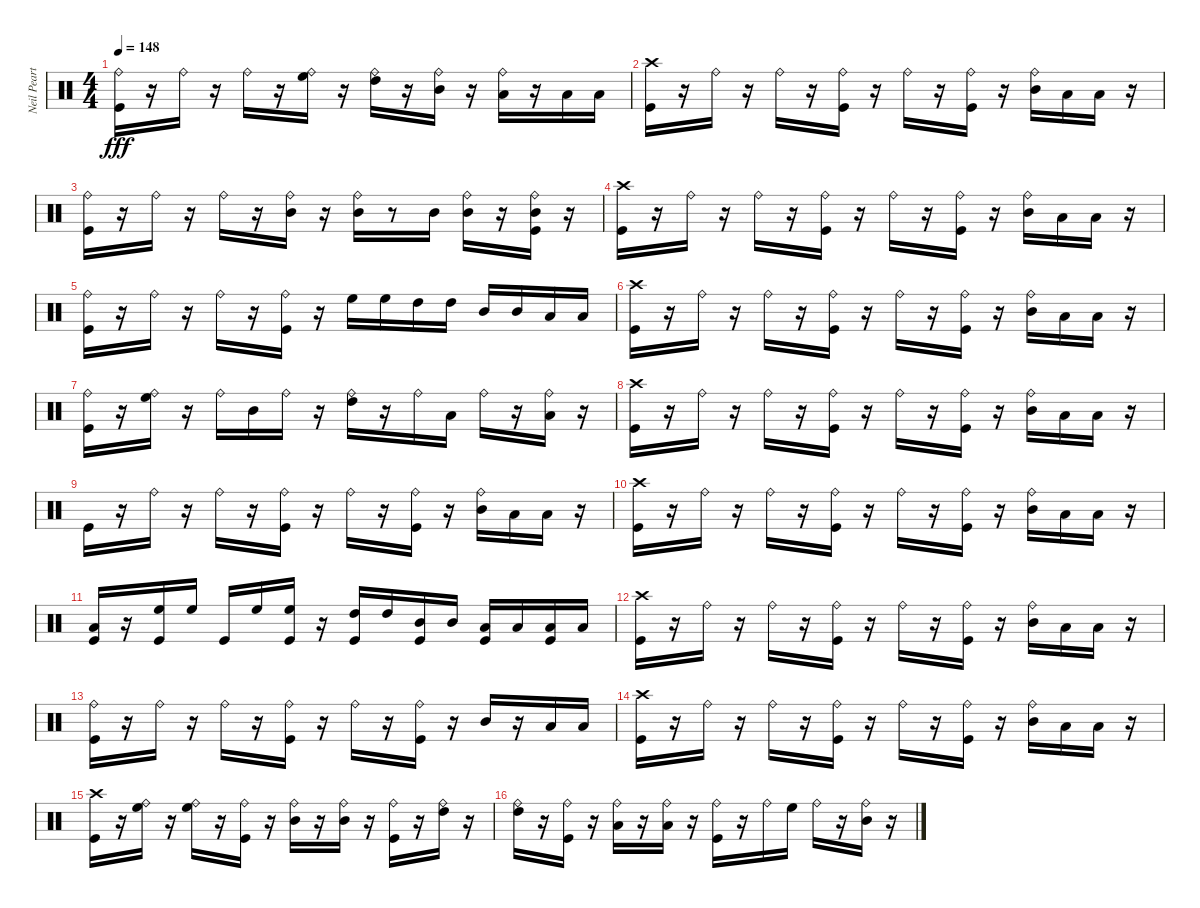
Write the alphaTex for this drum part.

\track ("Neil Peart" "Neil Peart") {instrument percussion}
\staff {score}
\articulation defaults
\ts (4 4)
\tempo 148
\clef neutral
\ks c
("Ride (bell)" "Kick (hit)").16{dy fff} r.16 "Ride (bell)".16 r.16 "Ride (bell)".16 r.16 ("Ride (bell)" "High Floor Tom (hit)").16 r.16 ("Ride (bell)" "High Tom (hit)").16 r.16 ("Ride (bell)" "Mid Tom (hit)").16 r.16 ("Ride (bell)" "Low Tom (hit)").16 r.16 "Low Floor Tom (hit)".16 "Low Floor Tom (hit)".16 |
("Kick (hit)" "Crash high (hit)").16 r.16 "Ride (bell)".16 r.16 "Ride (bell)".16 r.16 ("Kick (hit)" "Ride (bell)").16 r.16 "Ride (bell)".16 r.16 ("Kick (hit)" "Ride (bell)").16 r.16 ("Mid Tom (hit)" "Ride (bell)").16 "Low Floor Tom (hit)".16 "Low Floor Tom (hit)".16 r.16 |
("Ride (bell)" "Kick (hit)").16 r.16 "Ride (bell)".16 r.16 "Ride (bell)".16 r.16 ("Ride (bell)" "Mid Tom (hit)").16 r.16 ("Ride (bell)" "Mid Tom (hit)").16 r.8 "Mid Tom (hit)".16 ("Ride (bell)" "Mid Tom (hit)").16 r.16 ("Ride (bell)" "Mid Tom (hit)" "Kick (hit)").16 r.16 |
("Crash high (hit)" "Kick (hit)").16 r.16 "Ride (bell)".16 r.16 "Ride (bell)".16 r.16 ("Kick (hit)" "Ride (bell)").16 r.16 "Ride (bell)".16 r.16 ("Kick (hit)" "Ride (bell)").16 r.16 ("Mid Tom (hit)" "Ride (bell)").16 "Low Floor Tom (hit)".16 "Low Floor Tom (hit)".16 r.16 |
("Ride (bell)" "Kick (hit)").16 r.16 "Ride (bell)".16 r.16 "Ride (bell)".16 r.16 ("Ride (bell)" "Kick (hit)").16 r.16 "High Floor Tom (hit)".16 "High Floor Tom (hit)".16 "High Tom (hit)".16 "High Tom (hit)".16 "Mid Tom (hit)".16 "Mid Tom (hit)".16 "Low Tom (hit)".16 "Low Tom (hit)".16{volume 16} |
("Crash high (hit)" "Kick (hit)").16 r.16 "Ride (bell)".16{volume 15} r.16 "Ride (bell)".16 r.16 ("Kick (hit)" "Ride (bell)").16{volume 15} r.16 "Ride (bell)".16{volume 15} r.16 ("Kick (hit)" "Ride (bell)").16 r.16 ("Mid Tom (hit)" "Ride (bell)").16{volume 15} "Low Floor Tom (hit)".16{volume 14} "Low Floor Tom (hit)".16 r.16 |
("Ride (bell)" "Kick (hit)").16{volume 14} r.16 ("Ride (bell)" "High Floor Tom (hit)").16 r.16 "Ride (bell)".16{volume 14} "Mid Tom (hit)".16 "Ride (bell)".16{volume 14} r.16 ("Ride (bell)" "High Tom (hit)").16 r.16 "Ride (bell)".16{volume 13} "Low Tom (hit)".16{volume 13} "Ride (bell)".16 r.16 ("Ride (bell)" "Low Floor Tom (hit)").16{volume 13} r.16 |
("Crash high (hit)" "Kick (hit)").16 r.16 "Ride (bell)".16{volume 13} r.16 "Ride (bell)".16{volume 12} r.16 ("Kick (hit)" "Ride (bell)").16 r.16 "Ride (bell)".16{volume 12} r.16 ("Kick (hit)" "Ride (bell)").16{volume 12} r.16 ("Mid Tom (hit)" "Ride (bell)").16{volume 12} "Low Floor Tom (hit)".16 "Low Floor Tom (hit)".16 r.16 |
"Kick (hit)".16{volume 11} r.16 "Ride (bell)".16{volume 11} r.16 "Ride (bell)".16 r.16 ("Ride (bell)" "Kick (hit)").16{volume 11} r.16 "Ride (bell)".16{volume 11} r.16 ("Ride (bell)" "Kick (hit)").16{volume 10} r.16 ("Ride (bell)" "Mid Tom (hit)").16 "Low Floor Tom (hit)".16{volume 10} "Low Floor Tom (hit)".16 r.16 |
("Crash high (hit)" "Kick (hit)").16{volume 10} r.16 "Ride (bell)".16 r.16 "Ride (bell)".16{volume 10} r.16 ("Kick (hit)" "Ride (bell)").16{volume 9} r.16 "Ride (bell)".16{volume 9} r.16 ("Kick (hit)" "Ride (bell)").16 r.16 ("Mid Tom (hit)" "Ride (bell)").16{volume 9} "Low Floor Tom (hit)".16 "Low Floor Tom (hit)".16{volume 9} r.16 |
("Kick (hit)" "Low Floor Tom (hit)").16{volume 8} r.16 ("Kick (hit)" "High Floor Tom (hit)").16 "High Floor Tom (hit)".16{volume 8} "Kick (hit)".16 "High Floor Tom (hit)".16 ("High Floor Tom (hit)" "Kick (hit)").16{volume 8} r.16 ("Kick (hit)" "High Tom (hit)").16 "High Tom (hit)".16{volume 8} ("Mid Tom (hit)" "Kick (hit)").16 "Mid Tom (hit)".16 ("Low Tom (hit)" "Kick (hit)").16{volume 8} "Low Tom (hit)".16 ("Low Floor Tom (hit)" "Kick (hit)").16{volume 7} "Low Floor Tom (hit)".16 |
("Crash high (hit)" "Kick (hit)").16 r.16 "Ride (bell)".16{volume 7} r.16 "Ride (bell)".16{volume 7} r.16 ("Kick (hit)" "Ride (bell)").16 r.16 "Ride (bell)".16{volume 6} r.16 ("Kick (hit)" "Ride (bell)").16{volume 6} r.16 ("Mid Tom (hit)" "Ride (bell)").16{volume 6} "Low Floor Tom (hit)".16 "Low Floor Tom (hit)".16 r.16 |
("Ride (bell)" "Kick (hit)").16{volume 6} r.16 "Ride (bell)".16{volume 6} r.16 "Ride (bell)".16 r.16 ("Ride (bell)" "Kick (hit)").16{volume 5} r.16 "Ride (bell)".16{volume 5} r.16 ("Ride (bell)" "Kick (hit)").16{volume 5} r.16 "Mid Tom (hit)".16 r.16 "Low Floor Tom (hit)".16{volume 4} "Low Floor Tom (hit)".16 |
("Crash high (hit)" "Kick (hit)").16{volume 4} r.16 "Ride (bell)".16 r.16 "Ride (bell)".16{volume 4} r.16 ("Kick (hit)" "Ride (bell)").16{volume 4} r.16 "Ride (bell)".16{volume 4} r.16 ("Kick (hit)" "Ride (bell)").16 r.16 ("Mid Tom (hit)" "Ride (bell)").16{volume 3} "Low Floor Tom (hit)".16 "Low Floor Tom (hit)".16{volume 3} r.16 |
("Crash high (hit)" "Kick (hit)").16 r.16 ("Ride (bell)" "High Floor Tom (hit)").16{volume 3} r.16 ("Ride (bell)" "High Floor Tom (hit)").16{volume 2} r.16 ("Ride (bell)" "Kick (hit)").16{volume 2} r.16 ("Ride (bell)" "Mid Tom (hit)").16 r.16 ("Ride (bell)" "Mid Tom (hit)").16{volume 2} r.16 ("Ride (bell)" "Kick (hit)").16{volume 2} r.16 ("Ride (bell)" "High Tom (hit)").16 r.16 |
("Ride (bell)" "High Tom (hit)").16{volume 2} r.16 ("Ride (bell)" "Kick (hit)").16{volume 1} r.16 ("Ride (bell)" "Low Tom (hit)").16{volume 1} r.16 ("Ride (bell)" "Low Tom (hit)").16 r.16 ("Ride (bell)" "Kick (hit)").16{volume 1} r.16 "Ride (bell)".16{volume 0} "High Floor Tom (hit)".16 "Ride (bell)".16 r.16 ("Ride (bell)" "Mid Tom (hit)").16{volume 0} r.16
